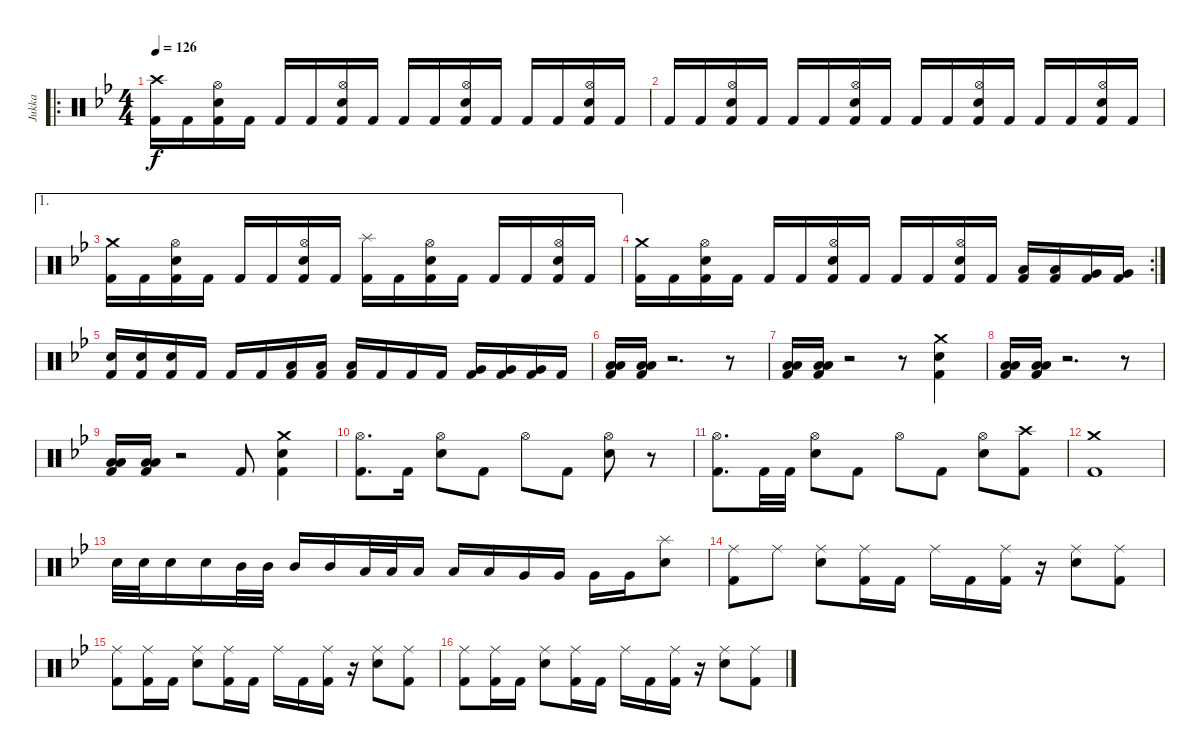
\track ("Jukka" "Jukka") {instrument percussion}
\staff {score}
\articulation defaults
\ro
\ts (4 4)
\tempo 126
\clef neutral
\ks gminor
("Crash high (hit)" "Kick (hit) 2").16{dy f} "Kick (hit) 2".16 ("Hi-Hat (open)" "Electric Snare (hit)" "Kick (hit) 2").16 "Kick (hit) 2".16 "Kick (hit) 2".16 "Kick (hit) 2".16 ("Hi-Hat (open)" "Electric Snare (hit)" "Kick (hit) 2").16 "Kick (hit) 2".16 "Kick (hit) 2".16 "Kick (hit) 2".16 ("Hi-Hat (open)" "Electric Snare (hit)" "Kick (hit) 2").16 "Kick (hit) 2".16 "Kick (hit) 2".16 "Kick (hit) 2".16 ("Hi-Hat (open)" "Electric Snare (hit)" "Kick (hit) 2").16 "Kick (hit) 2".16 |
"Kick (hit) 2".16 "Kick (hit) 2".16 ("Hi-Hat (open)" "Electric Snare (hit)" "Kick (hit) 2").16 "Kick (hit) 2".16 "Kick (hit) 2".16 "Kick (hit) 2".16 ("Hi-Hat (open)" "Electric Snare (hit)" "Kick (hit) 2").16 "Kick (hit) 2".16 "Kick (hit) 2".16 "Kick (hit) 2".16 ("Hi-Hat (open)" "Electric Snare (hit)" "Kick (hit) 2").16 "Kick (hit) 2".16 "Kick (hit) 2".16 "Kick (hit) 2".16 ("Hi-Hat (open)" "Electric Snare (hit)" "Kick (hit) 2").16 "Kick (hit) 2".16 |
\ae 1
("Crash medium (hit)" "Kick (hit) 2").16 "Kick (hit) 2".16 ("Hi-Hat (open)" "Electric Snare (hit)" "Kick (hit) 2").16 "Kick (hit) 2".16 "Kick (hit) 2".16 "Kick (hit) 2".16 ("Hi-Hat (open)" "Electric Snare (hit)" "Kick (hit) 2").16 "Kick (hit) 2".16 ("Splash (hit)" "Kick (hit) 2").16 "Kick (hit) 2".16 ("Hi-Hat (open)" "Electric Snare (hit)" "Kick (hit) 2").16 "Kick (hit) 2".16 "Kick (hit) 2".16 "Kick (hit) 2".16 ("Hi-Hat (open)" "Electric Snare (hit)" "Kick (hit) 2").16 "Kick (hit) 2".16 |
\rc 2
("Crash medium (hit)" "Kick (hit) 2").16 "Kick (hit) 2".16 ("Hi-Hat (open)" "Electric Snare (hit)" "Kick (hit) 2").16 "Kick (hit) 2".16 "Kick (hit) 2".16 "Kick (hit) 2".16 ("Hi-Hat (open)" "Electric Snare (hit)" "Kick (hit) 2").16 "Kick (hit) 2".16 "Kick (hit) 2".16 "Kick (hit) 2".16 ("Hi-Hat (open)" "Electric Snare (hit)" "Kick (hit) 2").16 "Kick (hit) 2".16 ("Low Tom (hit)" "Kick (hit) 2").16 ("Low Tom (hit)" "Kick (hit) 2").16 ("Very Low Tom (hit)" "Kick (hit) 2").16 ("Very Low Tom (hit)" "Kick (hit) 2").16 |
("Electric Snare (hit)" "Kick (hit) 2").16 ("Electric Snare (hit)" "Kick (hit) 2").16 ("Electric Snare (hit)" "Kick (hit) 2").16 "Kick (hit) 2".16 "Kick (hit) 2".16 "Kick (hit) 2".16 ("Low Tom (hit)" "Kick (hit) 2").16 ("Low Tom (hit)" "Kick (hit) 2").16 ("Low Tom (hit)" "Kick (hit) 2").16 "Kick (hit) 2".16 "Kick (hit) 2".16 "Kick (hit) 2".16 ("Very Low Tom (hit)" "Kick (hit) 2").16 ("Very Low Tom (hit)" "Kick (hit) 2").16 ("Very Low Tom (hit)" "Kick (hit) 2").16 "Kick (hit) 2".16 |
("Low Tom (hit)" "Low Floor Tom (hit)" "Kick (hit) 2").16 ("Low Tom (hit)" "Low Floor Tom (hit)" "Kick (hit) 2").16 r.2{d} r.8 |
("Low Tom (hit)" "Low Floor Tom (hit)" "Kick (hit) 2").16 ("Low Tom (hit)" "Low Floor Tom (hit)" "Kick (hit) 2").16 r.2 r.8 ("Crash medium (hit)" "Electric Snare (hit)" "Kick (hit) 2").4 |
("Low Tom (hit)" "Low Floor Tom (hit)" "Kick (hit) 2").16 ("Low Tom (hit)" "Low Floor Tom (hit)" "Kick (hit) 2").16 r.2{d} r.8 |
("Low Tom (hit)" "Low Floor Tom (hit)" "Kick (hit) 2").16 ("Low Tom (hit)" "Low Floor Tom (hit)" "Kick (hit) 2").16 r.2 "Kick (hit) 2".8 ("Crash medium (hit)" "Electric Snare (hit)" "Kick (hit) 2").4 |
("Hi-Hat (open)" "Kick (hit) 2").8{d} "Kick (hit) 2".16 ("Hi-Hat (open)" "Electric Snare (hit)").8 "Kick (hit) 2".8 "Hi-Hat (open)".8 "Kick (hit) 2".8 ("Hi-Hat (open)" "Electric Snare (hit)").8 r.8 |
("Hi-Hat (open)" "Kick (hit) 2").8{d} "Kick (hit) 2".32 "Kick (hit) 2".32 ("Hi-Hat (open)" "Electric Snare (hit)").8 "Kick (hit) 2".8 "Hi-Hat (open)".8 "Kick (hit) 2".8 ("Hi-Hat (open)" "Electric Snare (hit)").8 ("Crash high (hit)" "Kick (hit) 2").8 |
("Crash medium (hit)" "Kick (hit) 2").1 |
"Electric Snare (hit)".32 "Electric Snare (hit)".32 "Electric Snare (hit)".16 "Electric Snare (hit)".16 "Mid Tom (hit)".32 "Mid Tom (hit)".32 "Mid Tom (hit)".16 "Mid Tom (hit)".16 "Low Tom (hit)".32 "Low Tom (hit)".32 "Low Tom (hit)".16 "Low Tom (hit)".16 "Low Tom (hit)".16 "Very Low Tom (hit)".16 "Very Low Tom (hit)".16 "Very Low Tom (hit)".16 "Very Low Tom (hit)".16 ("Splash (hit)" "Electric Snare (hit)").8 |
("Ride (middle)" "Kick (hit) 2").8 "Ride (middle)".8 ("Ride (middle)" "Electric Snare (hit)").8 ("Ride (middle)" "Kick (hit) 2").16 "Kick (hit) 2".16 "Ride (middle)".16 "Kick (hit) 2".16 ("Ride (middle)" "Kick (hit) 2").16 r.16 ("Ride (middle)" "Electric Snare (hit)").8 ("Ride (middle)" "Kick (hit) 2").8 |
("Ride (middle)" "Kick (hit) 2").8 ("Ride (middle)" "Kick (hit) 2").16 "Kick (hit) 2".16 ("Ride (middle)" "Electric Snare (hit)").8 ("Ride (middle)" "Kick (hit) 2").16 "Kick (hit) 2".16 "Ride (middle)".16 "Kick (hit) 2".16 ("Ride (middle)" "Kick (hit) 2").16 r.16 ("Ride (middle)" "Electric Snare (hit)").8 ("Ride (middle)" "Kick (hit) 2").8 |
("Ride (middle)" "Kick (hit) 2").8 ("Ride (middle)" "Kick (hit) 2").16 "Kick (hit) 2".16 ("Ride (middle)" "Electric Snare (hit)").8 ("Ride (middle)" "Kick (hit) 2").16 "Kick (hit) 2".16 "Ride (middle)".16 "Kick (hit) 2".16 ("Ride (middle)" "Kick (hit) 2").16 r.16 ("Ride (middle)" "Electric Snare (hit)").8 ("Ride (middle)" "Kick (hit) 2").8
